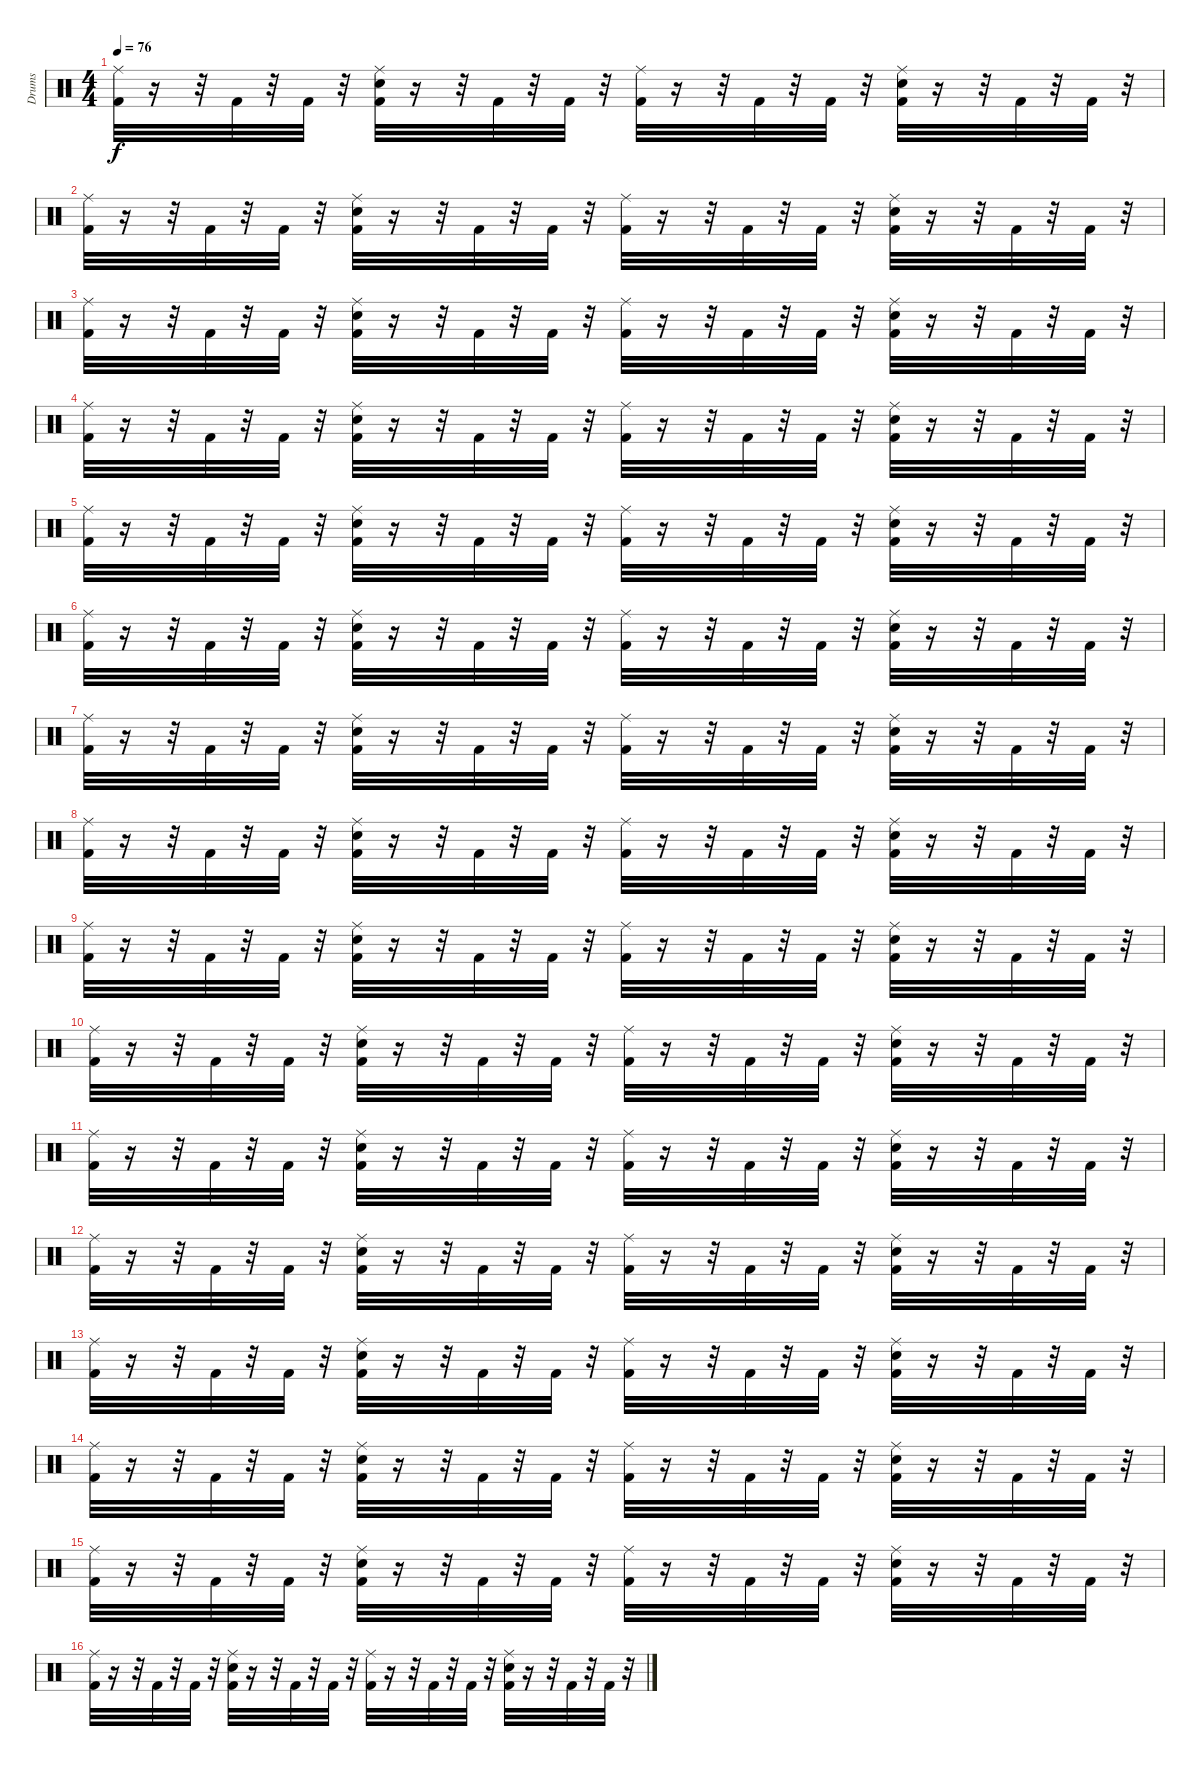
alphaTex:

\track ("Drums" "Drums") {instrument percussion}
\staff {score}
\articulation defaults
\ts (4 4)
\tempo 76
\clef neutral
\ks c
("Ride (middle)" "Kick (hit) 2").32{dy f} r.16 r.32 "Kick (hit) 2".32 r.32 "Kick (hit) 2".32 r.32 ("Ride (middle)" "Snare (hit) 2" "Kick (hit) 2").32 r.16 r.32 "Kick (hit) 2".32 r.32 "Kick (hit) 2".32 r.32 ("Ride (middle)" "Kick (hit) 2").32 r.16 r.32 "Kick (hit) 2".32 r.32 "Kick (hit) 2".32 r.32 ("Ride (middle)" "Snare (hit) 2" "Kick (hit) 2").32 r.16 r.32 "Kick (hit) 2".32 r.32 "Kick (hit) 2".32 r.32 |
("Ride (middle)" "Kick (hit) 2").32 r.16 r.32 "Kick (hit) 2".32 r.32 "Kick (hit) 2".32 r.32 ("Ride (middle)" "Snare (hit) 2" "Kick (hit) 2").32 r.16 r.32 "Kick (hit) 2".32 r.32 "Kick (hit) 2".32 r.32 ("Ride (middle)" "Kick (hit) 2").32 r.16 r.32 "Kick (hit) 2".32 r.32 "Kick (hit) 2".32 r.32 ("Ride (middle)" "Snare (hit) 2" "Kick (hit) 2").32 r.16 r.32 "Kick (hit) 2".32 r.32 "Kick (hit) 2".32 r.32 |
("Ride (middle)" "Kick (hit) 2").32 r.16 r.32 "Kick (hit) 2".32 r.32 "Kick (hit) 2".32 r.32 ("Ride (middle)" "Snare (hit) 2" "Kick (hit) 2").32 r.16 r.32 "Kick (hit) 2".32 r.32 "Kick (hit) 2".32 r.32 ("Ride (middle)" "Kick (hit) 2").32 r.16 r.32 "Kick (hit) 2".32 r.32 "Kick (hit) 2".32 r.32 ("Ride (middle)" "Snare (hit) 2" "Kick (hit) 2").32 r.16 r.32 "Kick (hit) 2".32 r.32 "Kick (hit) 2".32 r.32 |
("Ride (middle)" "Kick (hit) 2").32 r.16 r.32 "Kick (hit) 2".32 r.32 "Kick (hit) 2".32 r.32 ("Ride (middle)" "Snare (hit) 2" "Kick (hit) 2").32 r.16 r.32 "Kick (hit) 2".32 r.32 "Kick (hit) 2".32 r.32 ("Ride (middle)" "Kick (hit) 2").32 r.16 r.32 "Kick (hit) 2".32 r.32 "Kick (hit) 2".32 r.32 ("Ride (middle)" "Snare (hit) 2" "Kick (hit) 2").32 r.16 r.32 "Kick (hit) 2".32 r.32 "Kick (hit) 2".32 r.32 |
("Ride (middle)" "Kick (hit) 2").32 r.16 r.32 "Kick (hit) 2".32 r.32 "Kick (hit) 2".32 r.32 ("Ride (middle)" "Snare (hit) 2" "Kick (hit) 2").32 r.16 r.32 "Kick (hit) 2".32 r.32 "Kick (hit) 2".32 r.32 ("Ride (middle)" "Kick (hit) 2").32 r.16 r.32 "Kick (hit) 2".32 r.32 "Kick (hit) 2".32 r.32 ("Ride (middle)" "Snare (hit) 2" "Kick (hit) 2").32 r.16 r.32 "Kick (hit) 2".32 r.32 "Kick (hit) 2".32 r.32 |
("Ride (middle)" "Kick (hit) 2").32 r.16 r.32 "Kick (hit) 2".32 r.32 "Kick (hit) 2".32 r.32 ("Ride (middle)" "Snare (hit) 2" "Kick (hit) 2").32 r.16 r.32 "Kick (hit) 2".32 r.32 "Kick (hit) 2".32 r.32 ("Ride (middle)" "Kick (hit) 2").32 r.16 r.32 "Kick (hit) 2".32 r.32 "Kick (hit) 2".32 r.32 ("Ride (middle)" "Snare (hit) 2" "Kick (hit) 2").32 r.16 r.32 "Kick (hit) 2".32 r.32 "Kick (hit) 2".32 r.32 |
("Ride (middle)" "Kick (hit) 2").32 r.16 r.32 "Kick (hit) 2".32 r.32 "Kick (hit) 2".32 r.32 ("Ride (middle)" "Snare (hit) 2" "Kick (hit) 2").32 r.16 r.32 "Kick (hit) 2".32 r.32 "Kick (hit) 2".32 r.32 ("Ride (middle)" "Kick (hit) 2").32 r.16 r.32 "Kick (hit) 2".32 r.32 "Kick (hit) 2".32 r.32 ("Ride (middle)" "Snare (hit) 2" "Kick (hit) 2").32 r.16 r.32 "Kick (hit) 2".32 r.32 "Kick (hit) 2".32 r.32 |
("Ride (middle)" "Kick (hit) 2").32 r.16 r.32 "Kick (hit) 2".32 r.32 "Kick (hit) 2".32 r.32 ("Ride (middle)" "Snare (hit) 2" "Kick (hit) 2").32 r.16 r.32 "Kick (hit) 2".32 r.32 "Kick (hit) 2".32 r.32 ("Ride (middle)" "Kick (hit) 2").32 r.16 r.32 "Kick (hit) 2".32 r.32 "Kick (hit) 2".32 r.32 ("Ride (middle)" "Snare (hit) 2" "Kick (hit) 2").32 r.16 r.32 "Kick (hit) 2".32 r.32 "Kick (hit) 2".32 r.32 |
("Ride (middle)" "Kick (hit) 2").32 r.16 r.32 "Kick (hit) 2".32 r.32 "Kick (hit) 2".32 r.32 ("Ride (middle)" "Snare (hit) 2" "Kick (hit) 2").32 r.16 r.32 "Kick (hit) 2".32 r.32 "Kick (hit) 2".32 r.32 ("Ride (middle)" "Kick (hit) 2").32 r.16 r.32 "Kick (hit) 2".32 r.32 "Kick (hit) 2".32 r.32 ("Ride (middle)" "Snare (hit) 2" "Kick (hit) 2").32 r.16 r.32 "Kick (hit) 2".32 r.32 "Kick (hit) 2".32 r.32 |
("Ride (middle)" "Kick (hit) 2").32 r.16 r.32 "Kick (hit) 2".32 r.32 "Kick (hit) 2".32 r.32 ("Ride (middle)" "Snare (hit) 2" "Kick (hit) 2").32 r.16 r.32 "Kick (hit) 2".32 r.32 "Kick (hit) 2".32 r.32 ("Ride (middle)" "Kick (hit) 2").32 r.16 r.32 "Kick (hit) 2".32 r.32 "Kick (hit) 2".32 r.32 ("Ride (middle)" "Snare (hit) 2" "Kick (hit) 2").32 r.16 r.32 "Kick (hit) 2".32 r.32 "Kick (hit) 2".32 r.32 |
("Ride (middle)" "Kick (hit) 2").32 r.16 r.32 "Kick (hit) 2".32 r.32 "Kick (hit) 2".32 r.32 ("Ride (middle)" "Snare (hit) 2" "Kick (hit) 2").32 r.16 r.32 "Kick (hit) 2".32 r.32 "Kick (hit) 2".32 r.32 ("Ride (middle)" "Kick (hit) 2").32 r.16 r.32 "Kick (hit) 2".32 r.32 "Kick (hit) 2".32 r.32 ("Ride (middle)" "Snare (hit) 2" "Kick (hit) 2").32 r.16 r.32 "Kick (hit) 2".32 r.32 "Kick (hit) 2".32 r.32 |
("Ride (middle)" "Kick (hit) 2").32 r.16 r.32 "Kick (hit) 2".32 r.32 "Kick (hit) 2".32 r.32 ("Ride (middle)" "Snare (hit) 2" "Kick (hit) 2").32 r.16 r.32 "Kick (hit) 2".32 r.32 "Kick (hit) 2".32 r.32 ("Ride (middle)" "Kick (hit) 2").32 r.16 r.32 "Kick (hit) 2".32 r.32 "Kick (hit) 2".32 r.32 ("Ride (middle)" "Snare (hit) 2" "Kick (hit) 2").32 r.16 r.32 "Kick (hit) 2".32 r.32 "Kick (hit) 2".32 r.32 |
("Ride (middle)" "Kick (hit) 2").32 r.16 r.32 "Kick (hit) 2".32 r.32 "Kick (hit) 2".32 r.32 ("Ride (middle)" "Snare (hit) 2" "Kick (hit) 2").32 r.16 r.32 "Kick (hit) 2".32 r.32 "Kick (hit) 2".32 r.32 ("Ride (middle)" "Kick (hit) 2").32 r.16 r.32 "Kick (hit) 2".32 r.32 "Kick (hit) 2".32 r.32 ("Ride (middle)" "Snare (hit) 2" "Kick (hit) 2").32 r.16 r.32 "Kick (hit) 2".32 r.32 "Kick (hit) 2".32 r.32 |
("Ride (middle)" "Kick (hit) 2").32 r.16 r.32 "Kick (hit) 2".32 r.32 "Kick (hit) 2".32 r.32 ("Ride (middle)" "Snare (hit) 2" "Kick (hit) 2").32 r.16 r.32 "Kick (hit) 2".32 r.32 "Kick (hit) 2".32 r.32 ("Ride (middle)" "Kick (hit) 2").32 r.16 r.32 "Kick (hit) 2".32 r.32 "Kick (hit) 2".32 r.32 ("Ride (middle)" "Snare (hit) 2" "Kick (hit) 2").32 r.16 r.32 "Kick (hit) 2".32 r.32 "Kick (hit) 2".32 r.32 |
("Ride (middle)" "Kick (hit) 2").32 r.16 r.32 "Kick (hit) 2".32 r.32 "Kick (hit) 2".32 r.32 ("Ride (middle)" "Snare (hit) 2" "Kick (hit) 2").32 r.16 r.32 "Kick (hit) 2".32 r.32 "Kick (hit) 2".32 r.32 ("Ride (middle)" "Kick (hit) 2").32 r.16 r.32 "Kick (hit) 2".32 r.32 "Kick (hit) 2".32 r.32 ("Ride (middle)" "Snare (hit) 2" "Kick (hit) 2").32 r.16 r.32 "Kick (hit) 2".32 r.32 "Kick (hit) 2".32 r.32 |
("Ride (middle)" "Kick (hit) 2").32 r.16 r.32 "Kick (hit) 2".32 r.32 "Kick (hit) 2".32 r.32 ("Ride (middle)" "Snare (hit) 2" "Kick (hit) 2").32 r.16 r.32 "Kick (hit) 2".32 r.32 "Kick (hit) 2".32 r.32 ("Ride (middle)" "Kick (hit) 2").32 r.16 r.32 "Kick (hit) 2".32 r.32 "Kick (hit) 2".32 r.32 ("Ride (middle)" "Snare (hit) 2" "Kick (hit) 2").32 r.16 r.32 "Kick (hit) 2".32 r.32 "Kick (hit) 2".32 r.32
